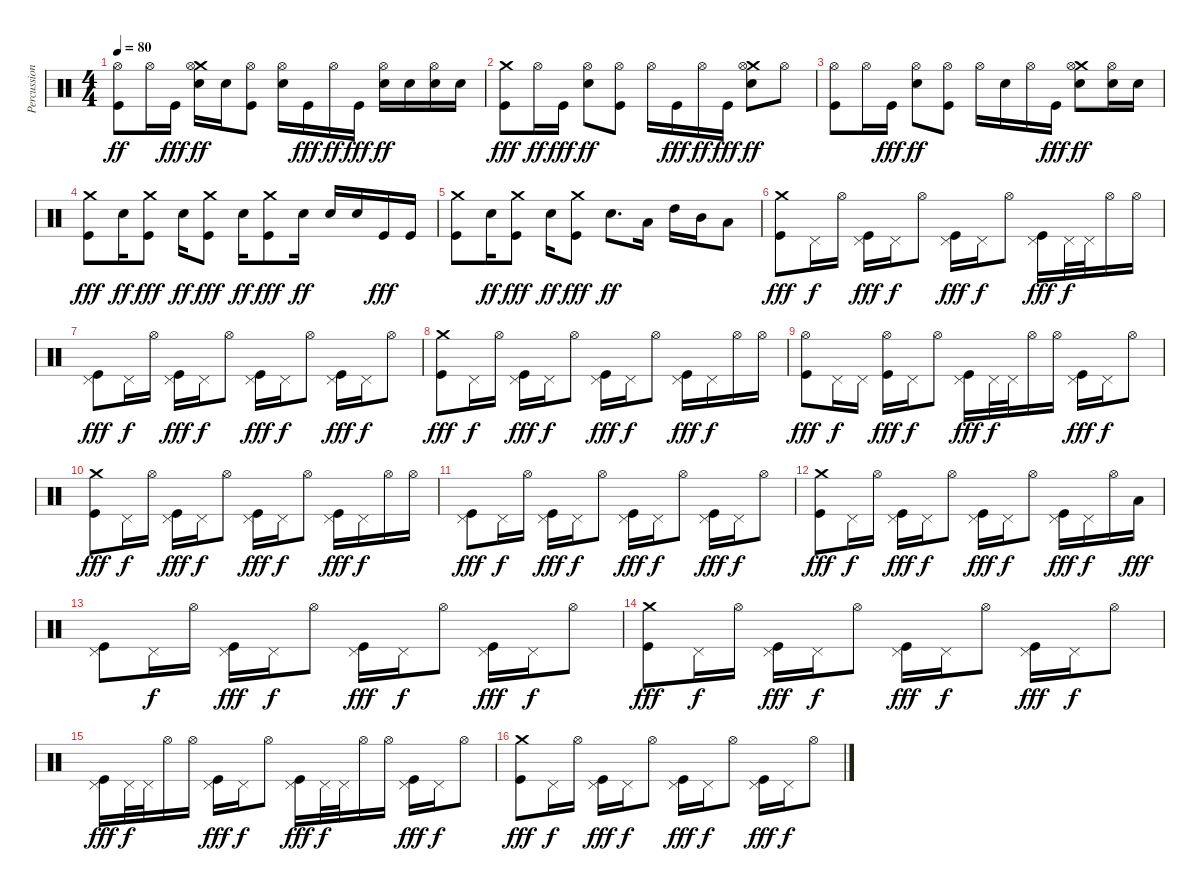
\track ("Percussion" "Percussion") {instrument percussion}
\staff {score}
\articulation defaults
\ts (4 4)
\tempo 80
\clef neutral
\ks c
("Kick (hit)" "Hi-Hat (open)").8{dy ff} "Hi-Hat (open)".16 "Kick (hit)".16{dy fff} ("Snare (hit) 2" "Crash medium (hit)" "Hi-Hat (open)").16{dy ff} "Snare (hit) 2".16 ("Kick (hit)" "Hi-Hat (open)").8 ("Snare (hit) 2" "Hi-Hat (open)").16 "Kick (hit)".16{dy fff} "Hi-Hat (open)".16{dy ff} "Kick (hit)".16{dy fff} ("Snare (hit) 2" "Hi-Hat (open)").16{dy ff} "Snare (hit) 2".16 ("Snare (hit) 2" "Hi-Hat (open)").16 "Snare (hit) 2".16 |
("Kick (hit)" "Crash medium (hit)").8{dy fff} "Hi-Hat (open)".16{dy ff} "Kick (hit)".16{dy fff} ("Snare (hit) 2" "Hi-Hat (open)").8{dy ff} ("Kick (hit)" "Hi-Hat (open)").8 "Hi-Hat (open)".16 "Kick (hit)".16{dy fff} "Hi-Hat (open)".16{dy ff} "Kick (hit)".16{dy fff} ("Snare (hit) 2" "Crash medium (hit)" "Hi-Hat (open)").8{dy ff} "Hi-Hat (open)".8 |
("Kick (hit)" "Hi-Hat (open)").8 "Hi-Hat (open)".16 "Kick (hit)".16{dy fff} ("Snare (hit) 2" "Hi-Hat (open)").8{dy ff} ("Kick (hit)" "Hi-Hat (open)").8 "Hi-Hat (open)".16 "Snare (hit) 2".16 "Hi-Hat (open)".16 "Kick (hit)".16{dy fff} ("Snare (hit) 2" "Crash medium (hit)" "Hi-Hat (open)").8{dy ff} ("Snare (hit) 2" "Hi-Hat (open)").16 "Snare (hit) 2".16 |
("Kick (hit)" "Crash medium (hit)").8{dy fff} "Snare (hit) 2".16{dy ff} ("Kick (hit)" "Crash medium (hit)").8{dy fff} "Snare (hit) 2".16{dy ff} ("Kick (hit)" "Crash medium (hit)").8{dy fff} "Snare (hit) 2".16{dy ff} ("Kick (hit)" "Crash medium (hit)").8{dy fff} "Snare (hit) 2".16{dy ff} "Snare (hit) 2".16 "Snare (hit) 2".16 "Kick (hit)".16{dy fff} "Kick (hit)".16 |
("Kick (hit)" "Crash medium (hit)").8 "Snare (hit) 2".16{dy ff} ("Kick (hit)" "Crash medium (hit)").8{dy fff} "Snare (hit) 2".16{dy ff} ("Kick (hit)" "Crash medium (hit)").8{dy fff} "Snare (hit) 2".8{d dy ff} "Low Tom (hit)".16 "High Tom (hit)".16 "Mid Tom (hit)".16 "Low Tom (hit)".8 |
("Kick (hit)" "Crash medium (hit)").8{dy fff} "Pedal Hi-Hat (hit)".16{dy f} "Hi-Hat (open)".16 ("Kick (hit)" "Pedal Hi-Hat (hit)").16{dy fff} "Pedal Hi-Hat (hit)".16{dy f} "Hi-Hat (open)".8 ("Kick (hit)" "Pedal Hi-Hat (hit)").16{dy fff} "Pedal Hi-Hat (hit)".16{dy f} "Hi-Hat (open)".8 ("Kick (hit)" "Pedal Hi-Hat (hit)").16{dy fff} "Pedal Hi-Hat (hit)".32{dy f} "Pedal Hi-Hat (hit)".32 "Hi-Hat (open)".16 "Hi-Hat (open)".16 |
("Kick (hit)" "Pedal Hi-Hat (hit)").8{dy fff} "Pedal Hi-Hat (hit)".16{dy f} "Hi-Hat (open)".16 ("Kick (hit)" "Pedal Hi-Hat (hit)").16{dy fff} "Pedal Hi-Hat (hit)".16{dy f} "Hi-Hat (open)".8 ("Kick (hit)" "Pedal Hi-Hat (hit)").16{dy fff} "Pedal Hi-Hat (hit)".16{dy f} "Hi-Hat (open)".8 ("Kick (hit)" "Pedal Hi-Hat (hit)").16{dy fff} "Pedal Hi-Hat (hit)".16{dy f} "Hi-Hat (open)".8 |
("Kick (hit)" "Crash medium (hit)").8{dy fff} "Pedal Hi-Hat (hit)".16{dy f} "Hi-Hat (open)".16 ("Kick (hit)" "Pedal Hi-Hat (hit)").16{dy fff} "Pedal Hi-Hat (hit)".16{dy f} "Hi-Hat (open)".8 ("Kick (hit)" "Pedal Hi-Hat (hit)").16{dy fff} "Pedal Hi-Hat (hit)".16{dy f} "Hi-Hat (open)".8 ("Kick (hit)" "Pedal Hi-Hat (hit)").16{dy fff} "Pedal Hi-Hat (hit)".16{dy f} "Hi-Hat (open)".16 "Hi-Hat (open)".16 |
("Kick (hit)" "Hi-Hat (open)").8{dy fff} "Pedal Hi-Hat (hit)".16{dy f} "Pedal Hi-Hat (hit)".16 ("Kick (hit)" "Hi-Hat (open)").16{dy fff} "Pedal Hi-Hat (hit)".16{dy f} "Hi-Hat (open)".8 ("Kick (hit)" "Pedal Hi-Hat (hit)").16{dy fff} "Pedal Hi-Hat (hit)".32{dy f} "Pedal Hi-Hat (hit)".32 "Hi-Hat (open)".16 "Hi-Hat (open)".16 ("Kick (hit)" "Pedal Hi-Hat (hit)").16{dy fff} "Pedal Hi-Hat (hit)".16{dy f} "Hi-Hat (open)".8 |
("Kick (hit)" "Crash medium (hit)").8{dy fff} "Pedal Hi-Hat (hit)".16{dy f} "Hi-Hat (open)".16 ("Kick (hit)" "Pedal Hi-Hat (hit)").16{dy fff} "Pedal Hi-Hat (hit)".16{dy f} "Hi-Hat (open)".8 ("Kick (hit)" "Pedal Hi-Hat (hit)").16{dy fff} "Pedal Hi-Hat (hit)".16{dy f} "Hi-Hat (open)".8 ("Kick (hit)" "Pedal Hi-Hat (hit)").16{dy fff} "Pedal Hi-Hat (hit)".16{dy f} "Hi-Hat (open)".16 "Hi-Hat (open)".16 |
("Kick (hit)" "Pedal Hi-Hat (hit)").8{dy fff} "Pedal Hi-Hat (hit)".16{dy f} "Hi-Hat (open)".16 ("Kick (hit)" "Pedal Hi-Hat (hit)").16{dy fff} "Pedal Hi-Hat (hit)".16{dy f} "Hi-Hat (open)".8 ("Kick (hit)" "Pedal Hi-Hat (hit)").16{dy fff} "Pedal Hi-Hat (hit)".16{dy f} "Hi-Hat (open)".8 ("Kick (hit)" "Pedal Hi-Hat (hit)").16{dy fff} "Pedal Hi-Hat (hit)".16{dy f} "Hi-Hat (open)".8 |
("Kick (hit)" "Crash medium (hit)").8{dy fff} "Pedal Hi-Hat (hit)".16{dy f} "Hi-Hat (open)".16 ("Kick (hit)" "Pedal Hi-Hat (hit)").16{dy fff} "Pedal Hi-Hat (hit)".16{dy f} "Hi-Hat (open)".8 ("Kick (hit)" "Pedal Hi-Hat (hit)").16{dy fff} "Pedal Hi-Hat (hit)".16{dy f} "Hi-Hat (open)".8 ("Kick (hit)" "Pedal Hi-Hat (hit)").16{dy fff} "Pedal Hi-Hat (hit)".16{dy f} "Hi-Hat (open)".16 "Low Tom (hit)".16{dy fff} |
("Kick (hit)" "Pedal Hi-Hat (hit)").8 "Pedal Hi-Hat (hit)".16{dy f} "Hi-Hat (open)".16 ("Kick (hit)" "Pedal Hi-Hat (hit)").16{dy fff} "Pedal Hi-Hat (hit)".16{dy f} "Hi-Hat (open)".8 ("Kick (hit)" "Pedal Hi-Hat (hit)").16{dy fff} "Pedal Hi-Hat (hit)".16{dy f} "Hi-Hat (open)".8 ("Kick (hit)" "Pedal Hi-Hat (hit)").16{dy fff} "Pedal Hi-Hat (hit)".16{dy f} "Hi-Hat (open)".8 |
("Kick (hit)" "Crash medium (hit)").8{dy fff} "Pedal Hi-Hat (hit)".16{dy f} "Hi-Hat (open)".16 ("Kick (hit)" "Pedal Hi-Hat (hit)").16{dy fff} "Pedal Hi-Hat (hit)".16{dy f} "Hi-Hat (open)".8 ("Kick (hit)" "Pedal Hi-Hat (hit)").16{dy fff} "Pedal Hi-Hat (hit)".16{dy f} "Hi-Hat (open)".8 ("Kick (hit)" "Pedal Hi-Hat (hit)").16{dy fff} "Pedal Hi-Hat (hit)".16{dy f} "Hi-Hat (open)".8 |
("Kick (hit)" "Pedal Hi-Hat (hit)").16{dy fff} "Pedal Hi-Hat (hit)".32{dy f} "Pedal Hi-Hat (hit)".32 "Hi-Hat (open)".16 "Hi-Hat (open)".16 ("Kick (hit)" "Pedal Hi-Hat (hit)").16{dy fff} "Pedal Hi-Hat (hit)".16{dy f} "Hi-Hat (open)".8 ("Kick (hit)" "Pedal Hi-Hat (hit)").16{dy fff} "Pedal Hi-Hat (hit)".32{dy f} "Pedal Hi-Hat (hit)".32 "Hi-Hat (open)".16 "Hi-Hat (open)".16 ("Kick (hit)" "Pedal Hi-Hat (hit)").16{dy fff} "Pedal Hi-Hat (hit)".16{dy f} "Hi-Hat (open)".8 |
("Kick (hit)" "Crash medium (hit)").8{dy fff} "Pedal Hi-Hat (hit)".16{dy f} "Hi-Hat (open)".16 ("Kick (hit)" "Pedal Hi-Hat (hit)").16{dy fff} "Pedal Hi-Hat (hit)".16{dy f} "Hi-Hat (open)".8 ("Kick (hit)" "Pedal Hi-Hat (hit)").16{dy fff} "Pedal Hi-Hat (hit)".16{dy f} "Hi-Hat (open)".8 ("Kick (hit)" "Pedal Hi-Hat (hit)").16{dy fff} "Pedal Hi-Hat (hit)".16{dy f} "Hi-Hat (open)".8
